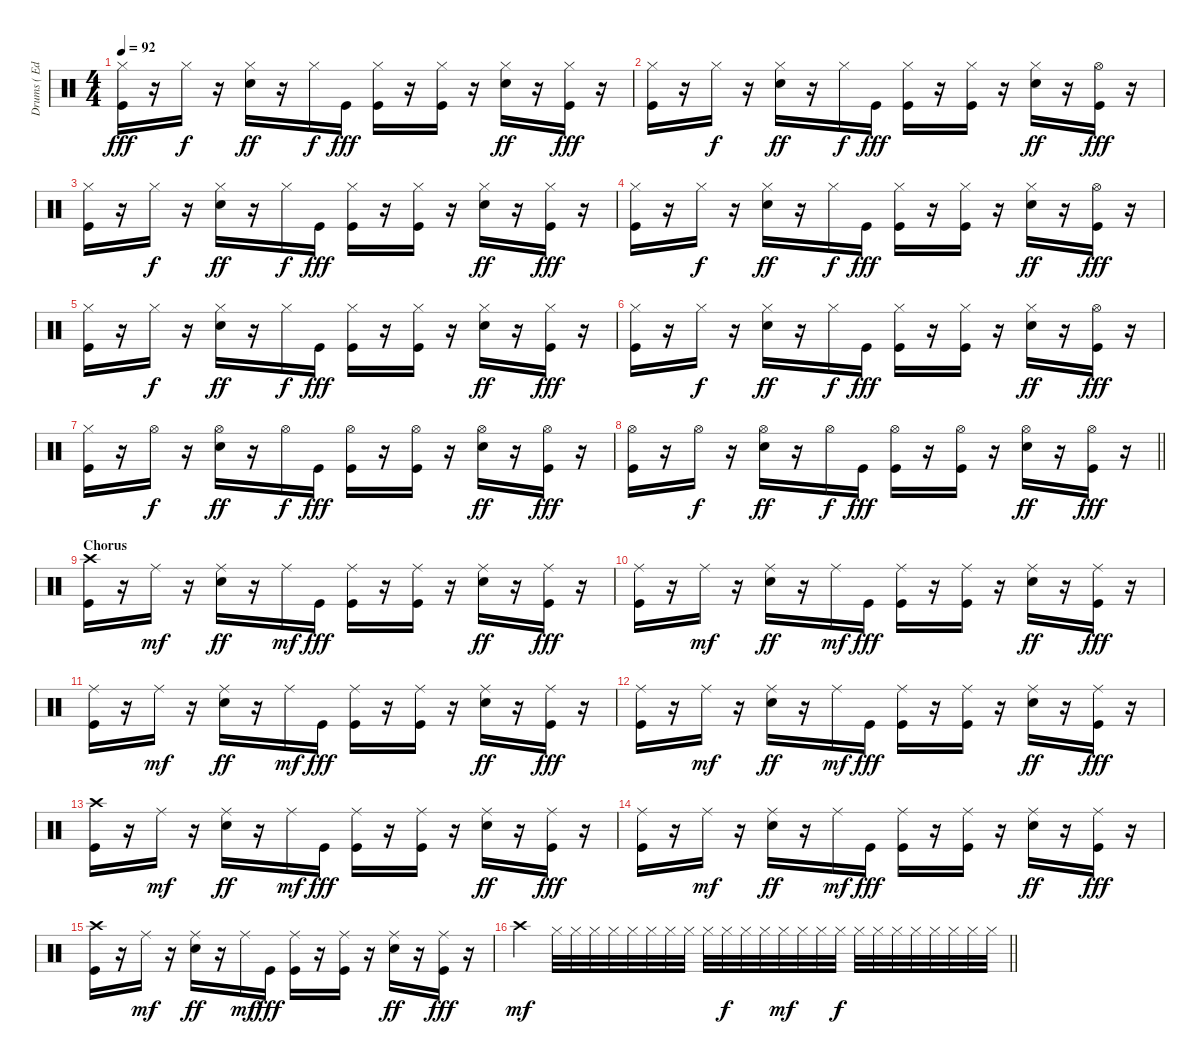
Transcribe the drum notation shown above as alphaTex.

\track ("Drums ( Edward O'Brien )" "Drums ( Ed") {instrument percussion}
\staff {score}
\articulation defaults
\ts (4 4)
\tempo 92
\clef neutral
\ks c
("Hi-Hat (closed)" "Kick (hit)").16{dy fff} r.16 "Hi-Hat (closed)".16{dy f} r.16 ("Hi-Hat (closed)" "Electric Snare (hit)").16{dy ff} r.16 "Hi-Hat (closed)".16{dy f} "Kick (hit)".16{dy fff} ("Hi-Hat (closed)" "Kick (hit)").16 r.16 ("Hi-Hat (closed)" "Kick (hit)").16 r.16 ("Hi-Hat (closed)" "Electric Snare (hit)").16{dy ff} r.16 ("Hi-Hat (closed)" "Kick (hit)").16{dy fff} r.16 |
("Hi-Hat (closed)" "Kick (hit)").16 r.16 "Hi-Hat (closed)".16{dy f} r.16 ("Hi-Hat (closed)" "Electric Snare (hit)").16{dy ff} r.16 "Hi-Hat (closed)".16{dy f} "Kick (hit)".16{dy fff} ("Hi-Hat (closed)" "Kick (hit)").16 r.16 ("Hi-Hat (closed)" "Kick (hit)").16 r.16 ("Hi-Hat (closed)" "Electric Snare (hit)").16{dy ff} r.16 ("Hi-Hat (open)" "Kick (hit)").16{dy fff} r.16 |
("Hi-Hat (closed)" "Kick (hit)").16 r.16 "Hi-Hat (closed)".16{dy f} r.16 ("Hi-Hat (closed)" "Electric Snare (hit)").16{dy ff} r.16 "Hi-Hat (closed)".16{dy f} "Kick (hit)".16{dy fff} ("Hi-Hat (closed)" "Kick (hit)").16 r.16 ("Hi-Hat (closed)" "Kick (hit)").16 r.16 ("Hi-Hat (closed)" "Electric Snare (hit)").16{dy ff} r.16 ("Hi-Hat (closed)" "Kick (hit)").16{dy fff} r.16 |
("Hi-Hat (closed)" "Kick (hit)").16 r.16 "Hi-Hat (closed)".16{dy f} r.16 ("Hi-Hat (closed)" "Electric Snare (hit)").16{dy ff} r.16 "Hi-Hat (closed)".16{dy f} "Kick (hit)".16{dy fff} ("Hi-Hat (closed)" "Kick (hit)").16 r.16 ("Hi-Hat (closed)" "Kick (hit)").16 r.16 ("Hi-Hat (closed)" "Electric Snare (hit)").16{dy ff} r.16 ("Hi-Hat (open)" "Kick (hit)").16{dy fff} r.16 |
("Hi-Hat (closed)" "Kick (hit)").16 r.16 "Hi-Hat (closed)".16{dy f} r.16 ("Hi-Hat (closed)" "Electric Snare (hit)").16{dy ff} r.16 "Hi-Hat (closed)".16{dy f} "Kick (hit)".16{dy fff} ("Hi-Hat (closed)" "Kick (hit)").16 r.16 ("Hi-Hat (closed)" "Kick (hit)").16 r.16 ("Hi-Hat (closed)" "Electric Snare (hit)").16{dy ff} r.16 ("Hi-Hat (closed)" "Kick (hit)").16{dy fff} r.16 |
("Hi-Hat (closed)" "Kick (hit)").16 r.16 "Hi-Hat (closed)".16{dy f} r.16 ("Hi-Hat (closed)" "Electric Snare (hit)").16{dy ff} r.16 "Hi-Hat (closed)".16{dy f} "Kick (hit)".16{dy fff} ("Hi-Hat (closed)" "Kick (hit)").16 r.16 ("Hi-Hat (closed)" "Kick (hit)").16 r.16 ("Hi-Hat (closed)" "Electric Snare (hit)").16{dy ff} r.16 ("Hi-Hat (open)" "Kick (hit)").16{dy fff} r.16 |
("Hi-Hat (closed)" "Kick (hit)").16 r.16 "Hi-Hat (open)".16{dy f} r.16 ("Hi-Hat (open)" "Electric Snare (hit)").16{dy ff} r.16 "Hi-Hat (open)".16{dy f} "Kick (hit)".16{dy fff} ("Hi-Hat (open)" "Kick (hit)").16 r.16 ("Hi-Hat (open)" "Kick (hit)").16 r.16 ("Hi-Hat (open)" "Electric Snare (hit)").16{dy ff} r.16 ("Hi-Hat (open)" "Kick (hit)").16{dy fff} r.16 |
\barLineRight lightlight
("Hi-Hat (open)" "Kick (hit)").16 r.16 "Hi-Hat (open)".16{dy f} r.16 ("Hi-Hat (open)" "Electric Snare (hit)").16{dy ff} r.16 "Hi-Hat (open)".16{dy f} "Kick (hit)".16{dy fff} ("Hi-Hat (open)" "Kick (hit)").16 r.16 ("Hi-Hat (open)" "Kick (hit)").16 r.16 ("Hi-Hat (open)" "Electric Snare (hit)").16{dy ff} r.16 ("Hi-Hat (open)" "Kick (hit)").16{dy fff} r.16 |
\section ("" "Chorus")
("Crash high (hit)" "Kick (hit)").16 r.16 "Ride (middle)".16{dy mf} r.16 ("Ride (middle)" "Electric Snare (hit)").16{dy ff} r.16 "Ride (middle)".16{dy mf} "Kick (hit)".16{dy fff} ("Ride (middle)" "Kick (hit)").16 r.16 ("Ride (middle)" "Kick (hit)").16 r.16 ("Ride (middle)" "Electric Snare (hit)").16{dy ff} r.16 ("Ride (middle)" "Kick (hit)").16{dy fff} r.16 |
("Ride (middle)" "Kick (hit)").16 r.16 "Ride (middle)".16{dy mf} r.16 ("Ride (middle)" "Electric Snare (hit)").16{dy ff} r.16 "Ride (middle)".16{dy mf} "Kick (hit)".16{dy fff} ("Ride (middle)" "Kick (hit)").16 r.16 ("Ride (middle)" "Kick (hit)").16 r.16 ("Ride (middle)" "Electric Snare (hit)").16{dy ff} r.16 ("Ride (middle)" "Kick (hit)").16{dy fff} r.16 |
("Ride (middle)" "Kick (hit)").16 r.16 "Ride (middle)".16{dy mf} r.16 ("Ride (middle)" "Electric Snare (hit)").16{dy ff} r.16 "Ride (middle)".16{dy mf} "Kick (hit)".16{dy fff} ("Ride (middle)" "Kick (hit)").16 r.16 ("Ride (middle)" "Kick (hit)").16 r.16 ("Ride (middle)" "Electric Snare (hit)").16{dy ff} r.16 ("Ride (middle)" "Kick (hit)").16{dy fff} r.16 |
("Ride (middle)" "Kick (hit)").16 r.16 "Ride (middle)".16{dy mf} r.16 ("Ride (middle)" "Electric Snare (hit)").16{dy ff} r.16 "Ride (middle)".16{dy mf} "Kick (hit)".16{dy fff} ("Ride (middle)" "Kick (hit)").16 r.16 ("Ride (middle)" "Kick (hit)").16 r.16 ("Ride (middle)" "Electric Snare (hit)").16{dy ff} r.16 ("Ride (middle)" "Kick (hit)").16{dy fff} r.16 |
("Crash high (hit)" "Kick (hit)").16 r.16 "Ride (middle)".16{dy mf} r.16 ("Ride (middle)" "Electric Snare (hit)").16{dy ff} r.16 "Ride (middle)".16{dy mf} "Kick (hit)".16{dy fff} ("Ride (middle)" "Kick (hit)").16 r.16 ("Ride (middle)" "Kick (hit)").16 r.16 ("Ride (middle)" "Electric Snare (hit)").16{dy ff} r.16 ("Ride (middle)" "Kick (hit)").16{dy fff} r.16 |
("Ride (middle)" "Kick (hit)").16 r.16 "Ride (middle)".16{dy mf} r.16 ("Ride (middle)" "Electric Snare (hit)").16{dy ff} r.16 "Ride (middle)".16{dy mf} "Kick (hit)".16{dy fff} ("Ride (middle)" "Kick (hit)").16 r.16 ("Ride (middle)" "Kick (hit)").16 r.16 ("Ride (middle)" "Electric Snare (hit)").16{dy ff} r.16 ("Ride (middle)" "Kick (hit)").16{dy fff} r.16 |
("Crash high (hit)" "Kick (hit)").16 r.16 "Ride (middle)".16{dy mf} r.16 ("Ride (middle)" "Electric Snare (hit)").16{dy ff} r.16 "Ride (middle)".16{dy mf} "Kick (hit)".16{dy fff} ("Ride (middle)" "Kick (hit)").16 r.16 ("Ride (middle)" "Kick (hit)").16 r.16 ("Ride (middle)" "Electric Snare (hit)").16{dy ff} r.16 ("Ride (middle)" "Kick (hit)").16{dy fff} r.16 |
\barLineRight lightlight "Crash high (hit)".4{dy mf} "Hi-Hat (closed)".32 "Hi-Hat (closed)".32 "Hi-Hat (closed)".32 "Hi-Hat (closed)".32 "Hi-Hat (closed)".32 "Hi-Hat (closed)".32 "Hi-Hat (closed)".32 "Hi-Hat (closed)".32 "Hi-Hat (closed)".32 "Hi-Hat (closed)".32{dy f} "Hi-Hat (closed)".32 "Hi-Hat (closed)".32 "Hi-Hat (closed)".32{dy mf} "Hi-Hat (closed)".32 "Hi-Hat (closed)".32 "Hi-Hat (closed)".32{dy f} "Hi-Hat (closed)".32 "Hi-Hat (closed)".32 "Hi-Hat (closed)".32 "Hi-Hat (closed)".32 "Hi-Hat (closed)".32 "Hi-Hat (closed)".32 "Hi-Hat (closed)".32 "Hi-Hat (closed)".32
